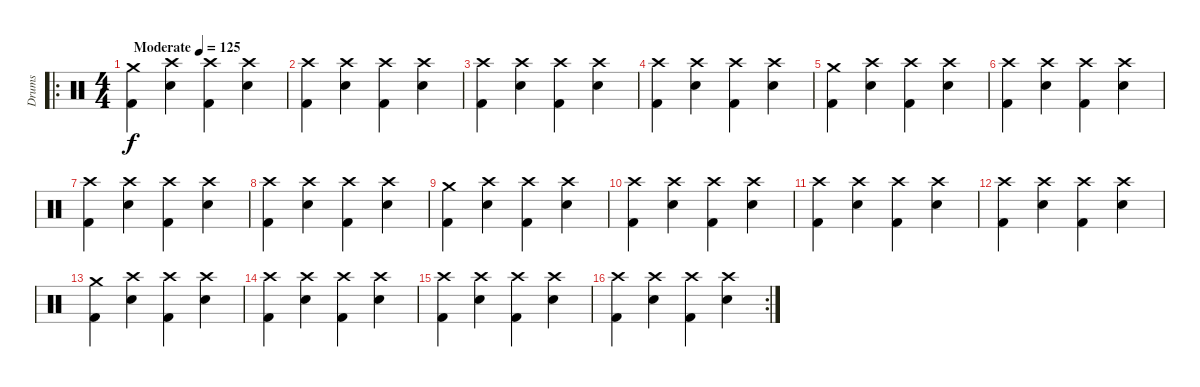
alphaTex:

\track ("Drums" "Drums") {instrument percussion}
\staff {score}
\articulation defaults
\ro
\ts (4 4)
\tempo (125 "Moderate")
\clef neutral
\ks c
("Crash medium (hit)" "Kick (hit) 2").4{dy f} ("Crash high (hit)" "Electric Snare (hit)").4 ("Crash high (hit)" "Kick (hit) 2").4 ("Crash high (hit)" "Electric Snare (hit)").4 |
("Crash high (hit)" "Kick (hit) 2").4 ("Crash high (hit)" "Electric Snare (hit)").4 ("Crash high (hit)" "Kick (hit) 2").4 ("Crash high (hit)" "Electric Snare (hit)").4 |
("Crash high (hit)" "Kick (hit) 2").4 ("Crash high (hit)" "Electric Snare (hit)").4 ("Crash high (hit)" "Kick (hit) 2").4 ("Crash high (hit)" "Electric Snare (hit)").4 |
("Crash high (hit)" "Kick (hit) 2").4 ("Crash high (hit)" "Electric Snare (hit)").4 ("Crash high (hit)" "Kick (hit) 2").4 ("Crash high (hit)" "Electric Snare (hit)").4 |
("Crash medium (hit)" "Kick (hit) 2").4 ("Crash high (hit)" "Electric Snare (hit)").4 ("Crash high (hit)" "Kick (hit) 2").4 ("Crash high (hit)" "Electric Snare (hit)").4 |
("Crash high (hit)" "Kick (hit) 2").4 ("Crash high (hit)" "Electric Snare (hit)").4 ("Crash high (hit)" "Kick (hit) 2").4 ("Crash high (hit)" "Electric Snare (hit)").4 |
("Crash high (hit)" "Kick (hit) 2").4 ("Crash high (hit)" "Electric Snare (hit)").4 ("Crash high (hit)" "Kick (hit) 2").4 ("Crash high (hit)" "Electric Snare (hit)").4 |
("Crash high (hit)" "Kick (hit) 2").4 ("Crash high (hit)" "Electric Snare (hit)").4 ("Crash high (hit)" "Kick (hit) 2").4 ("Crash high (hit)" "Electric Snare (hit)").4 |
("Crash medium (hit)" "Kick (hit) 2").4 ("Crash high (hit)" "Electric Snare (hit)").4 ("Crash high (hit)" "Kick (hit) 2").4 ("Crash high (hit)" "Electric Snare (hit)").4 |
("Crash high (hit)" "Kick (hit) 2").4 ("Crash high (hit)" "Electric Snare (hit)").4 ("Crash high (hit)" "Kick (hit) 2").4 ("Crash high (hit)" "Electric Snare (hit)").4 |
("Crash high (hit)" "Kick (hit) 2").4 ("Crash high (hit)" "Electric Snare (hit)").4 ("Crash high (hit)" "Kick (hit) 2").4 ("Crash high (hit)" "Electric Snare (hit)").4 |
("Crash high (hit)" "Kick (hit) 2").4 ("Crash high (hit)" "Electric Snare (hit)").4 ("Crash high (hit)" "Kick (hit) 2").4 ("Crash high (hit)" "Electric Snare (hit)").4 |
("Crash medium (hit)" "Kick (hit) 2").4 ("Crash high (hit)" "Electric Snare (hit)").4 ("Crash high (hit)" "Kick (hit) 2").4 ("Crash high (hit)" "Electric Snare (hit)").4 |
("Crash high (hit)" "Kick (hit) 2").4 ("Crash high (hit)" "Electric Snare (hit)").4 ("Crash high (hit)" "Kick (hit) 2").4 ("Crash high (hit)" "Electric Snare (hit)").4 |
("Crash high (hit)" "Kick (hit) 2").4 ("Crash high (hit)" "Electric Snare (hit)").4 ("Crash high (hit)" "Kick (hit) 2").4 ("Crash high (hit)" "Electric Snare (hit)").4 |
\rc 2
("Crash high (hit)" "Kick (hit) 2").4 ("Crash high (hit)" "Electric Snare (hit)").4 ("Crash high (hit)" "Kick (hit) 2").4 ("Crash high (hit)" "Electric Snare (hit)").4
